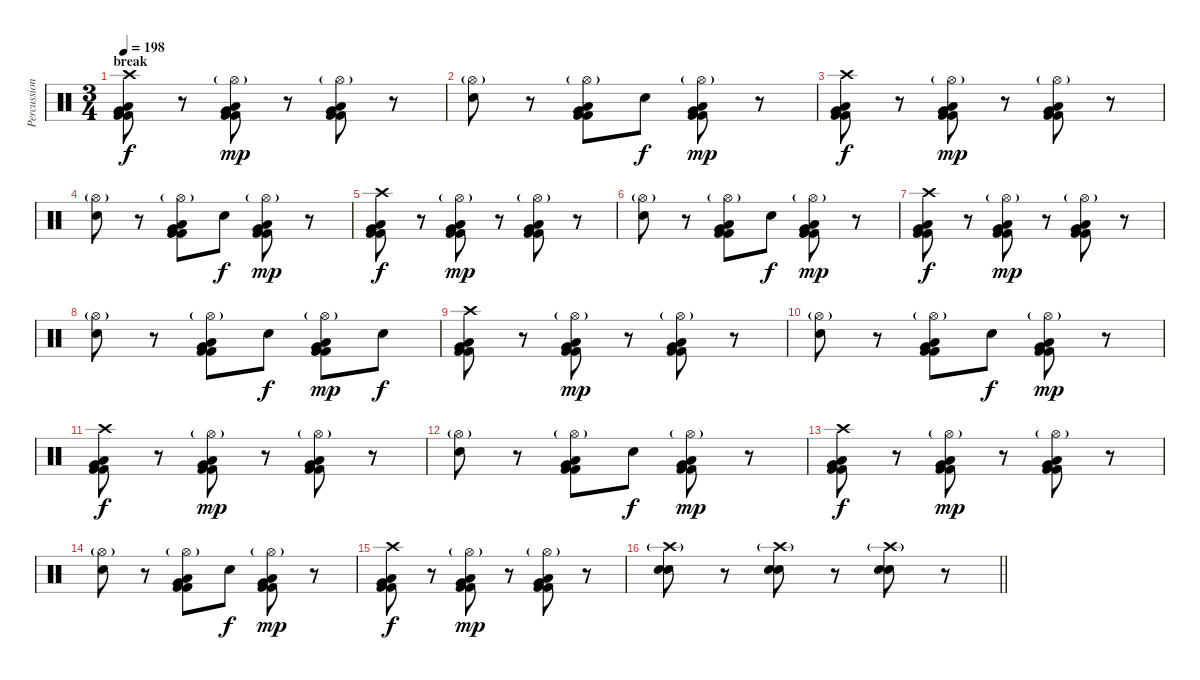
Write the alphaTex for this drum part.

\track ("Percussions" "Percussion") {instrument percussion}
\staff {score}
\articulation defaults
\ts (3 4)
\section ("" "break")
\tempo 198
\clef neutral
\ks c
("Low Floor Tom (hit)" "Kick (hit) 2" "Kick (hit) 2" "Very Low Tom (hit)" "Crash high (hit)").8{dy f} r.8 ("Low Floor Tom (hit)" "Kick (hit) 2" "Kick (hit) 2" "Very Low Tom (hit)" "Hi-Hat (open)"{g}).8{dy mp} r.8 ("Low Floor Tom (hit)" "Kick (hit) 2" "Kick (hit) 2" "Very Low Tom (hit)" "Hi-Hat (open)"{g}).8 r.8 |
("Electric Snare (hit)" "Hi-Hat (open)"{g}).8 r.8 ("Low Floor Tom (hit)" "Kick (hit) 2" "Kick (hit) 2" "Very Low Tom (hit)" "Hi-Hat (open)"{g}).8 "Electric Snare (hit)".8{dy f} ("Low Floor Tom (hit)" "Kick (hit) 2" "Kick (hit) 2" "Very Low Tom (hit)" "Hi-Hat (open)"{g}).8{dy mp} r.8 |
("Low Floor Tom (hit)" "Kick (hit) 2" "Kick (hit) 2" "Very Low Tom (hit)" "Crash high (hit)").8{dy f} r.8 ("Low Floor Tom (hit)" "Kick (hit) 2" "Kick (hit) 2" "Very Low Tom (hit)" "Hi-Hat (open)"{g}).8{dy mp} r.8 ("Low Floor Tom (hit)" "Kick (hit) 2" "Kick (hit) 2" "Very Low Tom (hit)" "Hi-Hat (open)"{g}).8 r.8 |
("Electric Snare (hit)" "Hi-Hat (open)"{g}).8 r.8 ("Low Floor Tom (hit)" "Kick (hit) 2" "Kick (hit) 2" "Very Low Tom (hit)" "Hi-Hat (open)"{g}).8 "Electric Snare (hit)".8{dy f} ("Low Floor Tom (hit)" "Kick (hit) 2" "Kick (hit) 2" "Very Low Tom (hit)" "Hi-Hat (open)"{g}).8{dy mp} r.8 |
("Low Floor Tom (hit)" "Kick (hit) 2" "Kick (hit) 2" "Very Low Tom (hit)" "Crash high (hit)").8{dy f} r.8 ("Low Floor Tom (hit)" "Kick (hit) 2" "Kick (hit) 2" "Very Low Tom (hit)" "Hi-Hat (open)"{g}).8{dy mp} r.8 ("Low Floor Tom (hit)" "Kick (hit) 2" "Kick (hit) 2" "Very Low Tom (hit)" "Hi-Hat (open)"{g}).8 r.8 |
("Electric Snare (hit)" "Hi-Hat (open)"{g}).8 r.8 ("Low Floor Tom (hit)" "Kick (hit) 2" "Kick (hit) 2" "Very Low Tom (hit)" "Hi-Hat (open)"{g}).8 "Electric Snare (hit)".8{dy f} ("Low Floor Tom (hit)" "Kick (hit) 2" "Kick (hit) 2" "Very Low Tom (hit)" "Hi-Hat (open)"{g}).8{dy mp} r.8 |
("Low Floor Tom (hit)" "Kick (hit) 2" "Kick (hit) 2" "Very Low Tom (hit)" "Crash high (hit)").8{dy f} r.8 ("Low Floor Tom (hit)" "Kick (hit) 2" "Kick (hit) 2" "Very Low Tom (hit)" "Hi-Hat (open)"{g}).8{dy mp} r.8 ("Low Floor Tom (hit)" "Kick (hit) 2" "Kick (hit) 2" "Very Low Tom (hit)" "Hi-Hat (open)"{g}).8 r.8 |
("Electric Snare (hit)" "Hi-Hat (open)"{g}).8 r.8 ("Low Floor Tom (hit)" "Kick (hit) 2" "Kick (hit) 2" "Very Low Tom (hit)" "Hi-Hat (open)"{g}).8 "Electric Snare (hit)".8{dy f} ("Low Floor Tom (hit)" "Kick (hit) 2" "Kick (hit) 2" "Very Low Tom (hit)" "Hi-Hat (open)"{g}).8{dy mp} "Electric Snare (hit)".8{dy f} |
("Low Floor Tom (hit)" "Kick (hit) 2" "Kick (hit) 2" "Very Low Tom (hit)" "Crash high (hit)").8 r.8 ("Low Floor Tom (hit)" "Kick (hit) 2" "Kick (hit) 2" "Very Low Tom (hit)" "Hi-Hat (open)"{g}).8{dy mp} r.8 ("Low Floor Tom (hit)" "Kick (hit) 2" "Kick (hit) 2" "Very Low Tom (hit)" "Hi-Hat (open)"{g}).8 r.8 |
("Electric Snare (hit)" "Hi-Hat (open)"{g}).8 r.8 ("Low Floor Tom (hit)" "Kick (hit) 2" "Kick (hit) 2" "Very Low Tom (hit)" "Hi-Hat (open)"{g}).8 "Electric Snare (hit)".8{dy f} ("Low Floor Tom (hit)" "Kick (hit) 2" "Kick (hit) 2" "Very Low Tom (hit)" "Hi-Hat (open)"{g}).8{dy mp} r.8 |
("Low Floor Tom (hit)" "Kick (hit) 2" "Kick (hit) 2" "Very Low Tom (hit)" "Crash high (hit)").8{dy f} r.8 ("Low Floor Tom (hit)" "Kick (hit) 2" "Kick (hit) 2" "Very Low Tom (hit)" "Hi-Hat (open)"{g}).8{dy mp} r.8 ("Low Floor Tom (hit)" "Kick (hit) 2" "Kick (hit) 2" "Very Low Tom (hit)" "Hi-Hat (open)"{g}).8 r.8 |
("Electric Snare (hit)" "Hi-Hat (open)"{g}).8 r.8 ("Low Floor Tom (hit)" "Kick (hit) 2" "Kick (hit) 2" "Very Low Tom (hit)" "Hi-Hat (open)"{g}).8 "Electric Snare (hit)".8{dy f} ("Low Floor Tom (hit)" "Kick (hit) 2" "Kick (hit) 2" "Very Low Tom (hit)" "Hi-Hat (open)"{g}).8{dy mp} r.8 |
("Low Floor Tom (hit)" "Kick (hit) 2" "Kick (hit) 2" "Very Low Tom (hit)" "Crash high (hit)").8{dy f} r.8 ("Low Floor Tom (hit)" "Kick (hit) 2" "Kick (hit) 2" "Very Low Tom (hit)" "Hi-Hat (open)"{g}).8{dy mp} r.8 ("Low Floor Tom (hit)" "Kick (hit) 2" "Kick (hit) 2" "Very Low Tom (hit)" "Hi-Hat (open)"{g}).8 r.8 |
("Electric Snare (hit)" "Hi-Hat (open)"{g}).8 r.8 ("Low Floor Tom (hit)" "Kick (hit) 2" "Kick (hit) 2" "Very Low Tom (hit)" "Hi-Hat (open)"{g}).8 "Electric Snare (hit)".8{dy f} ("Low Floor Tom (hit)" "Kick (hit) 2" "Kick (hit) 2" "Very Low Tom (hit)" "Hi-Hat (open)"{g}).8{dy mp} r.8 |
("Low Floor Tom (hit)" "Kick (hit) 2" "Kick (hit) 2" "Very Low Tom (hit)" "Crash high (hit)").8{dy f} r.8 ("Low Floor Tom (hit)" "Kick (hit) 2" "Kick (hit) 2" "Very Low Tom (hit)" "Hi-Hat (open)"{g}).8{dy mp} r.8 ("Low Floor Tom (hit)" "Kick (hit) 2" "Kick (hit) 2" "Very Low Tom (hit)" "Hi-Hat (open)"{g}).8 r.8 |
\barLineRight lightlight
("Electric Snare (hit)" "Electric Snare (hit)" "Crash high (hit)"{g}).8 r.8 ("Electric Snare (hit)" "Electric Snare (hit)" "Crash high (hit)"{g}).8 r.8 ("Electric Snare (hit)" "Electric Snare (hit)" "Crash high (hit)"{g}).8 r.8
